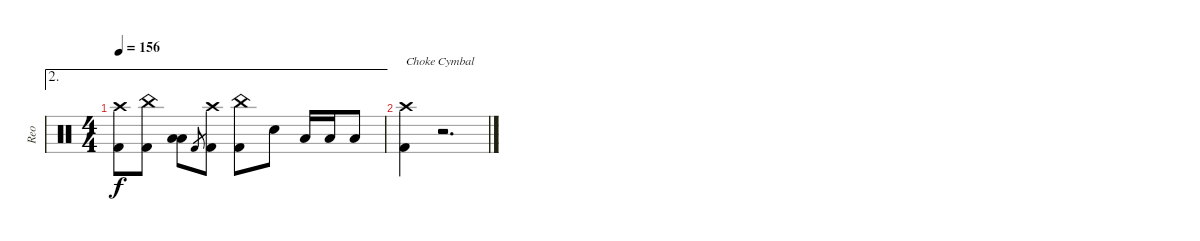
\track ("Reo" "Reo") {instrument percussion}
\staff {score}
\articulation defaults
\ae 2
\ts (4 4)
\tempo 156
\clef neutral
\ks c
("Crash high (hit)" "Kick (hit) 2").8{dy f balance 8} ("China (hit)" "Kick (hit) 2").8 ("Low Tom (hit)" "Low Tom (hit)").8 "Kick (hit) 2".8{gr} ("Crash high (hit)" "Kick (hit) 2").8 ("China (hit)" "Kick (hit) 2").8 "Snare (hit) 2".8 "Low Tom (hit)".16 "Low Tom (hit)".16 "Low Floor Tom (hit)".8 |
("Crash high (hit)" "Kick (hit) 2").4{txt "Choke Cymbal"} r.2{d}
